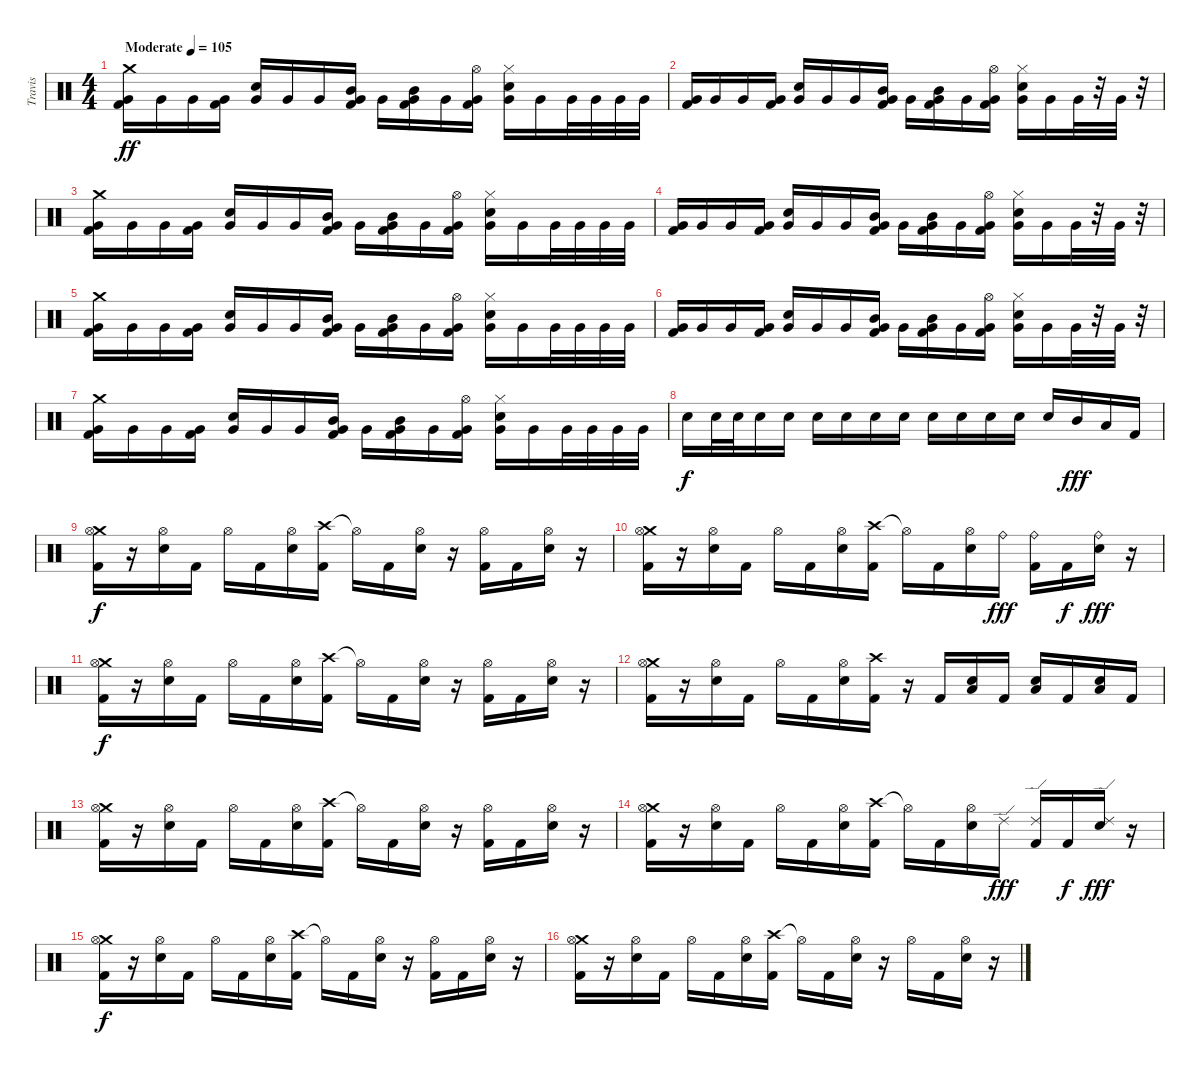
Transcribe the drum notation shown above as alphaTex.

\track ("Travis" "Travis") {instrument percussion}
\staff {score}
\articulation defaults
\ts (4 4)
\tempo (105 "Moderate")
\clef neutral
\ks c
("Crash medium (hit)" "Very Low Tom (hit)" "Kick (hit) 2").16{dy ff} "Very Low Tom (hit)".16 "Very Low Tom (hit)".16 ("Very Low Tom (hit)" "Kick (hit) 2").16 ("Electric Snare (hit)" "Very Low Tom (hit)").16 "Very Low Tom (hit)".16 "Very Low Tom (hit)".16 ("Mid Tom (hit)" "Very Low Tom (hit)" "Kick (hit) 2").16 "Very Low Tom (hit)".16 ("Mid Tom (hit)" "Very Low Tom (hit)" "Kick (hit) 2").16 "Very Low Tom (hit)".16 ("Hi-Hat (open)" "Very Low Tom (hit)" "Kick (hit) 2").16 ("Hi-Hat (closed)" "Electric Snare (hit)" "Very Low Tom (hit)").16 "Very Low Tom (hit)".16 "Very Low Tom (hit)".32 "Very Low Tom (hit)".32 "Very Low Tom (hit)".32 "Very Low Tom (hit)".32 |
("Very Low Tom (hit)" "Kick (hit) 2").16 "Very Low Tom (hit)".16 "Very Low Tom (hit)".16 ("Very Low Tom (hit)" "Kick (hit) 2").16 ("Electric Snare (hit)" "Very Low Tom (hit)").16 "Very Low Tom (hit)".16 "Very Low Tom (hit)".16 ("Mid Tom (hit)" "Very Low Tom (hit)" "Kick (hit) 2").16 "Very Low Tom (hit)".16 ("Mid Tom (hit)" "Very Low Tom (hit)" "Kick (hit) 2").16 "Very Low Tom (hit)".16 ("Hi-Hat (open)" "Very Low Tom (hit)" "Kick (hit) 2").16 ("Hi-Hat (closed)" "Electric Snare (hit)" "Very Low Tom (hit)").16 "Very Low Tom (hit)".16 "Very Low Tom (hit)".32 r.32 "Very Low Tom (hit)".32 r.32 |
("Crash medium (hit)" "Very Low Tom (hit)" "Kick (hit) 2").16 "Very Low Tom (hit)".16 "Very Low Tom (hit)".16 ("Very Low Tom (hit)" "Kick (hit) 2").16 ("Electric Snare (hit)" "Very Low Tom (hit)").16 "Very Low Tom (hit)".16 "Very Low Tom (hit)".16 ("Mid Tom (hit)" "Very Low Tom (hit)" "Kick (hit) 2").16 "Very Low Tom (hit)".16 ("Mid Tom (hit)" "Very Low Tom (hit)" "Kick (hit) 2").16 "Very Low Tom (hit)".16 ("Hi-Hat (open)" "Very Low Tom (hit)" "Kick (hit) 2").16 ("Hi-Hat (closed)" "Electric Snare (hit)" "Very Low Tom (hit)").16 "Very Low Tom (hit)".16 "Very Low Tom (hit)".32 "Very Low Tom (hit)".32 "Very Low Tom (hit)".32 "Very Low Tom (hit)".32 |
("Very Low Tom (hit)" "Kick (hit) 2").16 "Very Low Tom (hit)".16 "Very Low Tom (hit)".16 ("Very Low Tom (hit)" "Kick (hit) 2").16 ("Electric Snare (hit)" "Very Low Tom (hit)").16 "Very Low Tom (hit)".16 "Very Low Tom (hit)".16 ("Mid Tom (hit)" "Very Low Tom (hit)" "Kick (hit) 2").16 "Very Low Tom (hit)".16 ("Mid Tom (hit)" "Very Low Tom (hit)" "Kick (hit) 2").16 "Very Low Tom (hit)".16 ("Hi-Hat (open)" "Very Low Tom (hit)" "Kick (hit) 2").16 ("Hi-Hat (closed)" "Electric Snare (hit)" "Very Low Tom (hit)").16 "Very Low Tom (hit)".16 "Very Low Tom (hit)".32 r.32 "Very Low Tom (hit)".32 r.32 |
("Crash medium (hit)" "Very Low Tom (hit)" "Kick (hit) 2").16 "Very Low Tom (hit)".16 "Very Low Tom (hit)".16 ("Very Low Tom (hit)" "Kick (hit) 2").16 ("Electric Snare (hit)" "Very Low Tom (hit)").16 "Very Low Tom (hit)".16 "Very Low Tom (hit)".16 ("Mid Tom (hit)" "Very Low Tom (hit)" "Kick (hit) 2").16 "Very Low Tom (hit)".16 ("Mid Tom (hit)" "Very Low Tom (hit)" "Kick (hit) 2").16 "Very Low Tom (hit)".16 ("Hi-Hat (open)" "Very Low Tom (hit)" "Kick (hit) 2").16 ("Hi-Hat (closed)" "Electric Snare (hit)" "Very Low Tom (hit)").16 "Very Low Tom (hit)".16 "Very Low Tom (hit)".32 "Very Low Tom (hit)".32 "Very Low Tom (hit)".32 "Very Low Tom (hit)".32 |
("Very Low Tom (hit)" "Kick (hit) 2").16 "Very Low Tom (hit)".16 "Very Low Tom (hit)".16 ("Very Low Tom (hit)" "Kick (hit) 2").16 ("Electric Snare (hit)" "Very Low Tom (hit)").16 "Very Low Tom (hit)".16 "Very Low Tom (hit)".16 ("Mid Tom (hit)" "Very Low Tom (hit)" "Kick (hit) 2").16 "Very Low Tom (hit)".16 ("Mid Tom (hit)" "Very Low Tom (hit)" "Kick (hit) 2").16 "Very Low Tom (hit)".16 ("Hi-Hat (open)" "Very Low Tom (hit)" "Kick (hit) 2").16 ("Hi-Hat (closed)" "Electric Snare (hit)" "Very Low Tom (hit)").16 "Very Low Tom (hit)".16 "Very Low Tom (hit)".32 r.32 "Very Low Tom (hit)".32 r.32 |
("Crash medium (hit)" "Very Low Tom (hit)" "Kick (hit) 2").16 "Very Low Tom (hit)".16 "Very Low Tom (hit)".16 ("Very Low Tom (hit)" "Kick (hit) 2").16 ("Electric Snare (hit)" "Very Low Tom (hit)").16 "Very Low Tom (hit)".16 "Very Low Tom (hit)".16 ("Mid Tom (hit)" "Very Low Tom (hit)" "Kick (hit) 2").16 "Very Low Tom (hit)".16 ("Mid Tom (hit)" "Very Low Tom (hit)" "Kick (hit) 2").16 "Very Low Tom (hit)".16 ("Hi-Hat (open)" "Very Low Tom (hit)" "Kick (hit) 2").16 ("Hi-Hat (closed)" "Electric Snare (hit)" "Very Low Tom (hit)").16 "Very Low Tom (hit)".16 "Very Low Tom (hit)".32 "Very Low Tom (hit)".32 "Very Low Tom (hit)".32 "Very Low Tom (hit)".32 |
"Electric Snare (hit)".16{dy f} "Electric Snare (hit)".32 "Electric Snare (hit)".32 "Electric Snare (hit)".16 "Electric Snare (hit)".16 "Electric Snare (hit)".16 "Electric Snare (hit)".16 "Electric Snare (hit)".16 "Electric Snare (hit)".16 "Electric Snare (hit)".16 "Electric Snare (hit)".16 "Electric Snare (hit)".16 "Electric Snare (hit)".16 "Electric Snare (hit)".16 "Mid Tom (hit)".16{dy fff} "Low Tom (hit)".16 "Kick (hit) 2".16 |
("Crash medium (hit)" "Hi-Hat (open)" "Kick (hit) 2").16{dy f} r.16 ("Hi-Hat (open)" "Electric Snare (hit)").16 "Kick (hit) 2".16 "Hi-Hat (open)".16 "Kick (hit) 2".16 ("Hi-Hat (open)" "Electric Snare (hit)").16 ("Crash high (hit)" "Kick (hit) 2").16 "Hi-Hat (open)"{t}.16 "Kick (hit) 2".16 ("Hi-Hat (open)" "Electric Snare (hit)").16 r.16 ("Hi-Hat (open)" "Kick (hit) 2").16 "Kick (hit) 2".16 ("Hi-Hat (open)" "Electric Snare (hit)").16 r.16 |
("Crash medium (hit)" "Hi-Hat (open)" "Kick (hit) 2").16 r.16 ("Hi-Hat (open)" "Electric Snare (hit)").16 "Kick (hit) 2".16 "Hi-Hat (open)".16 "Kick (hit) 2".16 ("Hi-Hat (open)" "Electric Snare (hit)").16 ("Crash high (hit)" "Kick (hit) 2").16 "Hi-Hat (open)"{t}.16 "Kick (hit) 2".16 ("Hi-Hat (open)" "Electric Snare (hit)").16 "Ride (bell)".16{dy fff} ("Ride (bell)" "Kick (hit) 2").16 "Kick (hit) 2".16{dy f} ("Ride (bell)" "Electric Snare (hit)").16{dy fff} r.16 |
("Crash medium (hit)" "Hi-Hat (open)" "Kick (hit) 2").16{dy f} r.16 ("Hi-Hat (open)" "Electric Snare (hit)").16 "Kick (hit) 2".16 "Hi-Hat (open)".16 "Kick (hit) 2".16 ("Hi-Hat (open)" "Electric Snare (hit)").16 ("Crash high (hit)" "Kick (hit) 2").16 "Hi-Hat (open)"{t}.16 "Kick (hit) 2".16 ("Hi-Hat (open)" "Electric Snare (hit)").16 r.16 ("Hi-Hat (open)" "Kick (hit) 2").16 "Kick (hit) 2".16 ("Hi-Hat (open)" "Electric Snare (hit)").16 r.16 |
("Crash medium (hit)" "Hi-Hat (open)" "Kick (hit) 2").16 r.16 ("Hi-Hat (open)" "Electric Snare (hit)").16 "Kick (hit) 2".16 "Hi-Hat (open)".16 "Kick (hit) 2".16 ("Hi-Hat (open)" "Electric Snare (hit)").16 ("Crash high (hit)" "Kick (hit) 2").16 r.16 "Kick (hit) 2".16 ("Low Tom (hit)" "Electric Snare (hit)").16 "Kick (hit) 2".16 ("Low Tom (hit)" "Electric Snare (hit)").16 "Kick (hit) 2".16 ("Low Tom (hit)" "Electric Snare (hit)").16 "Kick (hit) 2".16 |
("Crash medium (hit)" "Hi-Hat (open)" "Kick (hit) 2").16 r.16 ("Hi-Hat (open)" "Electric Snare (hit)").16 "Kick (hit) 2".16 "Hi-Hat (open)".16 "Kick (hit) 2".16 ("Hi-Hat (open)" "Electric Snare (hit)").16 ("Crash high (hit)" "Kick (hit) 2").16 "Hi-Hat (open)"{t}.16 "Kick (hit) 2".16 ("Hi-Hat (open)" "Electric Snare (hit)").16 r.16 ("Hi-Hat (open)" "Kick (hit) 2").16 "Kick (hit) 2".16 ("Hi-Hat (open)" "Electric Snare (hit)").16 r.16 |
("Crash medium (hit)" "Hi-Hat (open)" "Kick (hit) 2").16 r.16 ("Hi-Hat (open)" "Electric Snare (hit)").16 "Kick (hit) 2".16 "Hi-Hat (open)".16 "Kick (hit) 2".16 ("Hi-Hat (open)" "Electric Snare (hit)").16 ("Crash high (hit)" "Kick (hit) 2").16 "Hi-Hat (open)"{t}.16 "Kick (hit) 2".16 ("Hi-Hat (open)" "Electric Snare (hit)").16 "Ride (edge) 2".16{dy fff} ("Ride (edge) 2" "Kick (hit) 2").16 "Kick (hit) 2".16{dy f} ("Ride (edge) 2" "Electric Snare (hit)").16{dy fff} r.16 |
("Crash medium (hit)" "Hi-Hat (open)" "Kick (hit) 2").16{dy f} r.16 ("Hi-Hat (open)" "Electric Snare (hit)").16 "Kick (hit) 2".16 "Hi-Hat (open)".16 "Kick (hit) 2".16 ("Hi-Hat (open)" "Electric Snare (hit)").16 ("Crash high (hit)" "Kick (hit) 2").16 "Hi-Hat (open)"{t}.16 "Kick (hit) 2".16 ("Hi-Hat (open)" "Electric Snare (hit)").16 r.16 ("Hi-Hat (open)" "Kick (hit) 2").16 "Kick (hit) 2".16 ("Hi-Hat (open)" "Electric Snare (hit)").16 r.16 |
("Crash medium (hit)" "Hi-Hat (open)" "Kick (hit) 2").16 r.16 ("Hi-Hat (open)" "Electric Snare (hit)").16 "Kick (hit) 2".16 "Hi-Hat (open)".16 "Kick (hit) 2".16 ("Hi-Hat (open)" "Electric Snare (hit)").16 ("Crash high (hit)" "Kick (hit) 2").16 "Hi-Hat (open)"{t}.16 "Kick (hit) 2".16 ("Hi-Hat (open)" "Electric Snare (hit)").16 r.16 "Hi-Hat (open)".16 "Kick (hit) 2".16 ("Hi-Hat (open)" "Electric Snare (hit)").16 r.16
